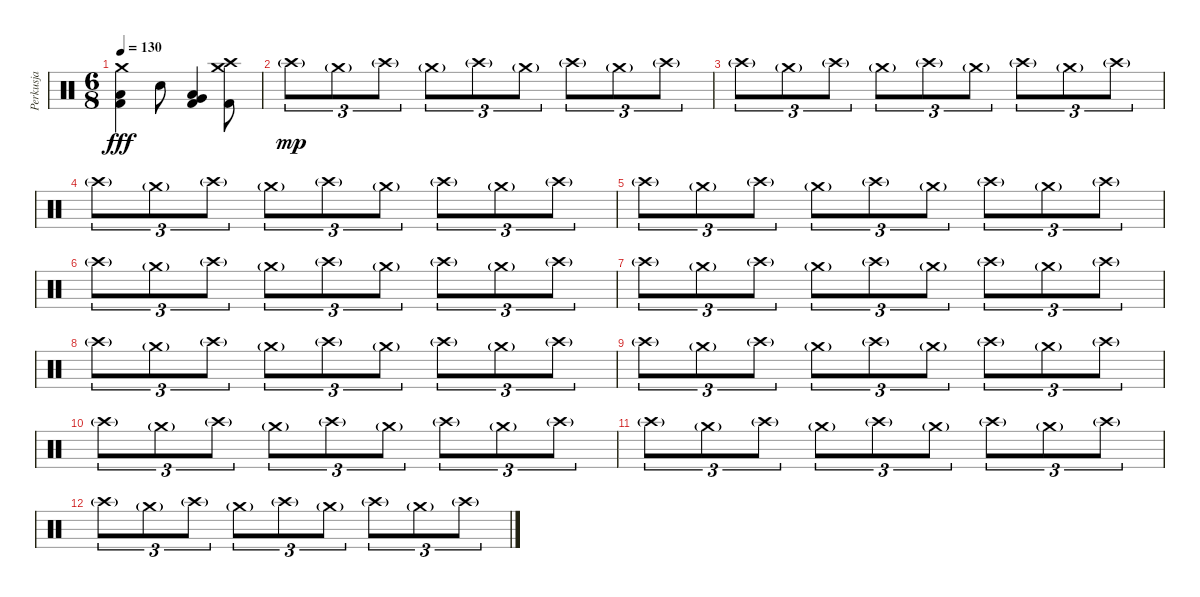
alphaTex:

\track ("Perkusja" "Perkusja") {instrument percussion}
\staff {score}
\articulation defaults
\ts (6 8)
\tempo 130
\clef neutral
\ks c
("Crash medium (hit)" "Low Floor Tom (hit)" "Kick (hit) 2").4{dy fff} "Electric Snare (hit)".8 ("Very Low Tom (hit)" "Low Floor Tom (hit)" "Kick (hit) 2").4 ("Crash high (hit)" "Crash medium (hit)" "Kick (hit) 2").8 |
"Crash high (hit)"{g}.8{tu (3 2) dy mp} "Crash medium (hit)"{g}.8{tu (3 2)} "Crash high (hit)"{g}.8{tu (3 2)} "Crash medium (hit)"{g}.8{tu (3 2)} "Crash high (hit)"{g}.8{tu (3 2)} "Crash medium (hit)"{g}.8{tu (3 2)} "Crash high (hit)"{g}.8{tu (3 2)} "Crash medium (hit)"{g}.8{tu (3 2)} "Crash high (hit)"{g}.8{tu (3 2)} |
"Crash high (hit)"{g}.8{tu (3 2)} "Crash medium (hit)"{g}.8{tu (3 2)} "Crash high (hit)"{g}.8{tu (3 2)} "Crash medium (hit)"{g}.8{tu (3 2)} "Crash high (hit)"{g}.8{tu (3 2)} "Crash medium (hit)"{g}.8{tu (3 2)} "Crash high (hit)"{g}.8{tu (3 2)} "Crash medium (hit)"{g}.8{tu (3 2)} "Crash high (hit)"{g}.8{tu (3 2)} |
"Crash high (hit)"{g}.8{tu (3 2)} "Crash medium (hit)"{g}.8{tu (3 2)} "Crash high (hit)"{g}.8{tu (3 2)} "Crash medium (hit)"{g}.8{tu (3 2)} "Crash high (hit)"{g}.8{tu (3 2)} "Crash medium (hit)"{g}.8{tu (3 2)} "Crash high (hit)"{g}.8{tu (3 2)} "Crash medium (hit)"{g}.8{tu (3 2)} "Crash high (hit)"{g}.8{tu (3 2)} |
"Crash high (hit)"{g}.8{tu (3 2)} "Crash medium (hit)"{g}.8{tu (3 2)} "Crash high (hit)"{g}.8{tu (3 2)} "Crash medium (hit)"{g}.8{tu (3 2)} "Crash high (hit)"{g}.8{tu (3 2)} "Crash medium (hit)"{g}.8{tu (3 2)} "Crash high (hit)"{g}.8{tu (3 2)} "Crash medium (hit)"{g}.8{tu (3 2)} "Crash high (hit)"{g}.8{tu (3 2)} |
"Crash high (hit)"{g}.8{tu (3 2)} "Crash medium (hit)"{g}.8{tu (3 2)} "Crash high (hit)"{g}.8{tu (3 2)} "Crash medium (hit)"{g}.8{tu (3 2)} "Crash high (hit)"{g}.8{tu (3 2)} "Crash medium (hit)"{g}.8{tu (3 2)} "Crash high (hit)"{g}.8{tu (3 2)} "Crash medium (hit)"{g}.8{tu (3 2)} "Crash high (hit)"{g}.8{tu (3 2)} |
"Crash high (hit)"{g}.8{tu (3 2)} "Crash medium (hit)"{g}.8{tu (3 2)} "Crash high (hit)"{g}.8{tu (3 2)} "Crash medium (hit)"{g}.8{tu (3 2)} "Crash high (hit)"{g}.8{tu (3 2)} "Crash medium (hit)"{g}.8{tu (3 2)} "Crash high (hit)"{g}.8{tu (3 2)} "Crash medium (hit)"{g}.8{tu (3 2)} "Crash high (hit)"{g}.8{tu (3 2)} |
"Crash high (hit)"{g}.8{tu (3 2)} "Crash medium (hit)"{g}.8{tu (3 2)} "Crash high (hit)"{g}.8{tu (3 2)} "Crash medium (hit)"{g}.8{tu (3 2)} "Crash high (hit)"{g}.8{tu (3 2)} "Crash medium (hit)"{g}.8{tu (3 2)} "Crash high (hit)"{g}.8{tu (3 2)} "Crash medium (hit)"{g}.8{tu (3 2)} "Crash high (hit)"{g}.8{tu (3 2)} |
"Crash high (hit)"{g}.8{tu (3 2)} "Crash medium (hit)"{g}.8{tu (3 2)} "Crash high (hit)"{g}.8{tu (3 2)} "Crash medium (hit)"{g}.8{tu (3 2)} "Crash high (hit)"{g}.8{tu (3 2)} "Crash medium (hit)"{g}.8{tu (3 2)} "Crash high (hit)"{g}.8{tu (3 2)} "Crash medium (hit)"{g}.8{tu (3 2)} "Crash high (hit)"{g}.8{tu (3 2)} |
"Crash high (hit)"{g}.8{tu (3 2)} "Crash medium (hit)"{g}.8{tu (3 2)} "Crash high (hit)"{g}.8{tu (3 2)} "Crash medium (hit)"{g}.8{tu (3 2)} "Crash high (hit)"{g}.8{tu (3 2)} "Crash medium (hit)"{g}.8{tu (3 2)} "Crash high (hit)"{g}.8{tu (3 2)} "Crash medium (hit)"{g}.8{tu (3 2)} "Crash high (hit)"{g}.8{tu (3 2)} |
"Crash high (hit)"{g}.8{tu (3 2)} "Crash medium (hit)"{g}.8{tu (3 2)} "Crash high (hit)"{g}.8{tu (3 2)} "Crash medium (hit)"{g}.8{tu (3 2)} "Crash high (hit)"{g}.8{tu (3 2)} "Crash medium (hit)"{g}.8{tu (3 2)} "Crash high (hit)"{g}.8{tu (3 2)} "Crash medium (hit)"{g}.8{tu (3 2)} "Crash high (hit)"{g}.8{tu (3 2)} |
"Crash high (hit)"{g}.8{tu (3 2)} "Crash medium (hit)"{g}.8{tu (3 2)} "Crash high (hit)"{g}.8{tu (3 2)} "Crash medium (hit)"{g}.8{tu (3 2)} "Crash high (hit)"{g}.8{tu (3 2)} "Crash medium (hit)"{g}.8{tu (3 2)} "Crash high (hit)"{g}.8{tu (3 2)} "Crash medium (hit)"{g}.8{tu (3 2)} "Crash high (hit)"{g}.8{tu (3 2)}
